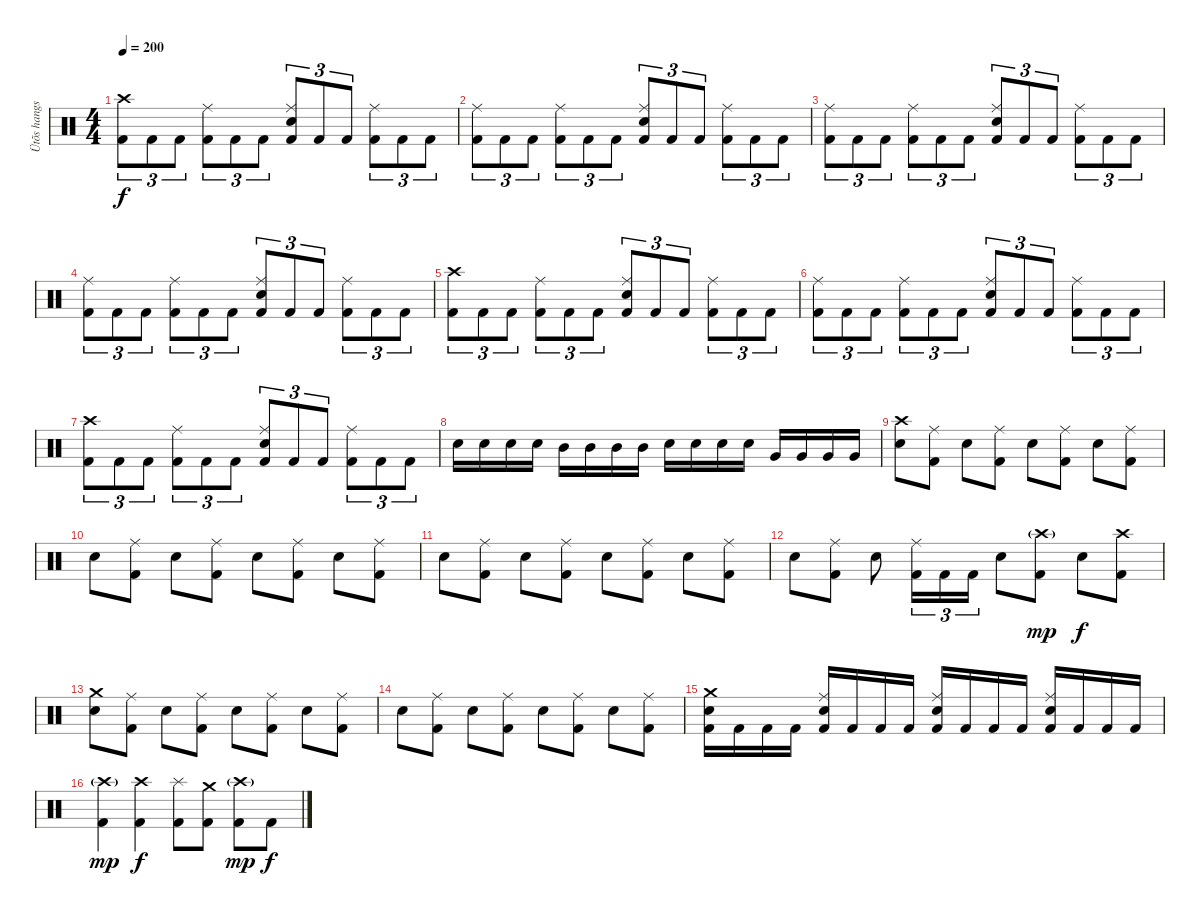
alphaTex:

\track ("Ütõs hangszer" "Ütõs hangs") {instrument percussion}
\staff {score}
\articulation defaults
\ts (4 4)
\tempo 200
\clef neutral
\ks c
("Crash high (hit)" "Kick (hit) 2").8{tu (3 2) dy f} "Kick (hit) 2".8{tu (3 2)} "Kick (hit) 2".8{tu (3 2)} ("Ride (middle)" "Kick (hit) 2").8{tu (3 2)} "Kick (hit) 2".8{tu (3 2)} "Kick (hit) 2".8{tu (3 2)} ("Ride (middle)" "Snare (hit) 2" "Kick (hit) 2").8{tu (3 2)} "Kick (hit) 2".8{tu (3 2)} "Kick (hit) 2".8{tu (3 2)} ("Ride (middle)" "Kick (hit) 2").8{tu (3 2)} "Kick (hit) 2".8{tu (3 2)} "Kick (hit) 2".8{tu (3 2)} |
("Ride (middle)" "Kick (hit) 2").8{tu (3 2)} "Kick (hit) 2".8{tu (3 2)} "Kick (hit) 2".8{tu (3 2)} ("Ride (middle)" "Kick (hit) 2").8{tu (3 2)} "Kick (hit) 2".8{tu (3 2)} "Kick (hit) 2".8{tu (3 2)} ("Ride (middle)" "Snare (hit) 2" "Kick (hit) 2").8{tu (3 2)} "Kick (hit) 2".8{tu (3 2)} "Kick (hit) 2".8{tu (3 2)} ("Ride (middle)" "Kick (hit) 2").8{tu (3 2)} "Kick (hit) 2".8{tu (3 2)} "Kick (hit) 2".8{tu (3 2)} |
("Ride (middle)" "Kick (hit) 2").8{tu (3 2)} "Kick (hit) 2".8{tu (3 2)} "Kick (hit) 2".8{tu (3 2)} ("Ride (middle)" "Kick (hit) 2").8{tu (3 2)} "Kick (hit) 2".8{tu (3 2)} "Kick (hit) 2".8{tu (3 2)} ("Ride (middle)" "Snare (hit) 2" "Kick (hit) 2").8{tu (3 2)} "Kick (hit) 2".8{tu (3 2)} "Kick (hit) 2".8{tu (3 2)} ("Ride (middle)" "Kick (hit) 2").8{tu (3 2)} "Kick (hit) 2".8{tu (3 2)} "Kick (hit) 2".8{tu (3 2)} |
("Ride (middle)" "Kick (hit) 2").8{tu (3 2)} "Kick (hit) 2".8{tu (3 2)} "Kick (hit) 2".8{tu (3 2)} ("Ride (middle)" "Kick (hit) 2").8{tu (3 2)} "Kick (hit) 2".8{tu (3 2)} "Kick (hit) 2".8{tu (3 2)} ("Ride (middle)" "Snare (hit) 2" "Kick (hit) 2").8{tu (3 2)} "Kick (hit) 2".8{tu (3 2)} "Kick (hit) 2".8{tu (3 2)} ("Ride (middle)" "Kick (hit) 2").8{tu (3 2)} "Kick (hit) 2".8{tu (3 2)} "Kick (hit) 2".8{tu (3 2)} |
("Crash high (hit)" "Kick (hit) 2").8{tu (3 2)} "Kick (hit) 2".8{tu (3 2)} "Kick (hit) 2".8{tu (3 2)} ("Ride (middle)" "Kick (hit) 2").8{tu (3 2)} "Kick (hit) 2".8{tu (3 2)} "Kick (hit) 2".8{tu (3 2)} ("Ride (middle)" "Snare (hit) 2" "Kick (hit) 2").8{tu (3 2)} "Kick (hit) 2".8{tu (3 2)} "Kick (hit) 2".8{tu (3 2)} ("Ride (middle)" "Kick (hit) 2").8{tu (3 2)} "Kick (hit) 2".8{tu (3 2)} "Kick (hit) 2".8{tu (3 2)} |
("Ride (middle)" "Kick (hit) 2").8{tu (3 2)} "Kick (hit) 2".8{tu (3 2)} "Kick (hit) 2".8{tu (3 2)} ("Ride (middle)" "Kick (hit) 2").8{tu (3 2)} "Kick (hit) 2".8{tu (3 2)} "Kick (hit) 2".8{tu (3 2)} ("Ride (middle)" "Snare (hit) 2" "Kick (hit) 2").8{tu (3 2)} "Kick (hit) 2".8{tu (3 2)} "Kick (hit) 2".8{tu (3 2)} ("Ride (middle)" "Kick (hit) 2").8{tu (3 2)} "Kick (hit) 2".8{tu (3 2)} "Kick (hit) 2".8{tu (3 2)} |
("Crash high (hit)" "Kick (hit) 2").8{tu (3 2)} "Kick (hit) 2".8{tu (3 2)} "Kick (hit) 2".8{tu (3 2)} ("Ride (middle)" "Kick (hit) 2").8{tu (3 2)} "Kick (hit) 2".8{tu (3 2)} "Kick (hit) 2".8{tu (3 2)} ("Ride (middle)" "Snare (hit) 2" "Kick (hit) 2").8{tu (3 2)} "Kick (hit) 2".8{tu (3 2)} "Kick (hit) 2".8{tu (3 2)} ("Ride (middle)" "Kick (hit) 2").8{tu (3 2)} "Kick (hit) 2".8{tu (3 2)} "Kick (hit) 2".8{tu (3 2)} |
"Electric Snare (hit)".16 "Electric Snare (hit)".16 "Electric Snare (hit)".16 "Electric Snare (hit)".16 "Mid Tom (hit)".16 "Mid Tom (hit)".16 "Mid Tom (hit)".16 "Mid Tom (hit)".16 "Electric Snare (hit)".16 "Electric Snare (hit)".16 "Electric Snare (hit)".16 "Electric Snare (hit)".16 "Very Low Tom (hit)".16 "Very Low Tom (hit)".16 "Very Low Tom (hit)".16 "Very Low Tom (hit)".16 |
("Crash high (hit)" "Snare (hit) 2").8 ("Ride (middle)" "Kick (hit) 2").8 "Snare (hit) 2".8 ("Ride (middle)" "Kick (hit) 2").8 "Snare (hit) 2".8 ("Ride (middle)" "Kick (hit) 2").8 "Snare (hit) 2".8 ("Ride (middle)" "Kick (hit) 2").8 |
"Snare (hit) 2".8 ("Ride (middle)" "Kick (hit) 2").8 "Snare (hit) 2".8 ("Ride (middle)" "Kick (hit) 2").8 "Snare (hit) 2".8 ("Ride (middle)" "Kick (hit) 2").8 "Snare (hit) 2".8 ("Ride (middle)" "Kick (hit) 2").8 |
"Snare (hit) 2".8 ("Ride (middle)" "Kick (hit) 2").8 "Snare (hit) 2".8 ("Ride (middle)" "Kick (hit) 2").8 "Snare (hit) 2".8 ("Ride (middle)" "Kick (hit) 2").8 "Snare (hit) 2".8 ("Ride (middle)" "Kick (hit) 2").8 |
"Snare (hit) 2".8 ("Ride (middle)" "Kick (hit) 2").8 "Snare (hit) 2".8 ("Ride (middle)" "Kick (hit) 2").16{tu (3 2)} "Kick (hit) 2".16{tu (3 2)} "Kick (hit) 2".16{tu (3 2)} "Snare (hit) 2".8 ("Crash high (hit)"{g} "Kick (hit) 2").8{dy mp} "Snare (hit) 2".8{dy f} ("Crash high (hit)" "Kick (hit) 2").8 |
("Crash medium (hit)" "Snare (hit) 2").8 ("Ride (middle)" "Kick (hit) 2").8 "Snare (hit) 2".8 ("Ride (middle)" "Kick (hit) 2").8 "Snare (hit) 2".8 ("Ride (middle)" "Kick (hit) 2").8 "Snare (hit) 2".8 ("Ride (middle)" "Kick (hit) 2").8 |
"Snare (hit) 2".8 ("Ride (middle)" "Kick (hit) 2").8 "Snare (hit) 2".8 ("Ride (middle)" "Kick (hit) 2").8 "Snare (hit) 2".8 ("Ride (middle)" "Kick (hit) 2").8 "Snare (hit) 2".8 ("Ride (middle)" "Kick (hit) 2").8 |
("Crash medium (hit)" "Snare (hit) 2" "Kick (hit) 2").16 "Kick (hit) 2".16 "Kick (hit) 2".16 "Kick (hit) 2".16 ("Ride (middle)" "Snare (hit) 2" "Kick (hit) 2").16 "Kick (hit) 2".16 "Kick (hit) 2".16 "Kick (hit) 2".16 ("Ride (middle)" "Snare (hit) 2" "Kick (hit) 2").16 "Kick (hit) 2".16 "Kick (hit) 2".16 "Kick (hit) 2".16 ("Ride (middle)" "Snare (hit) 2" "Kick (hit) 2").16 "Kick (hit) 2".16 "Kick (hit) 2".16 "Kick (hit) 2".16 |
("Crash high (hit)"{g} "Kick (hit) 2").4{dy mp} ("Crash high (hit)" "Kick (hit) 2").4{dy f} ("Splash (hit)" "Kick (hit) 2").8 ("Crash medium (hit)" "Kick (hit) 2").8 ("Crash high (hit)"{g} "Kick (hit) 2").8{dy mp} "Kick (hit) 2".8{dy f}
